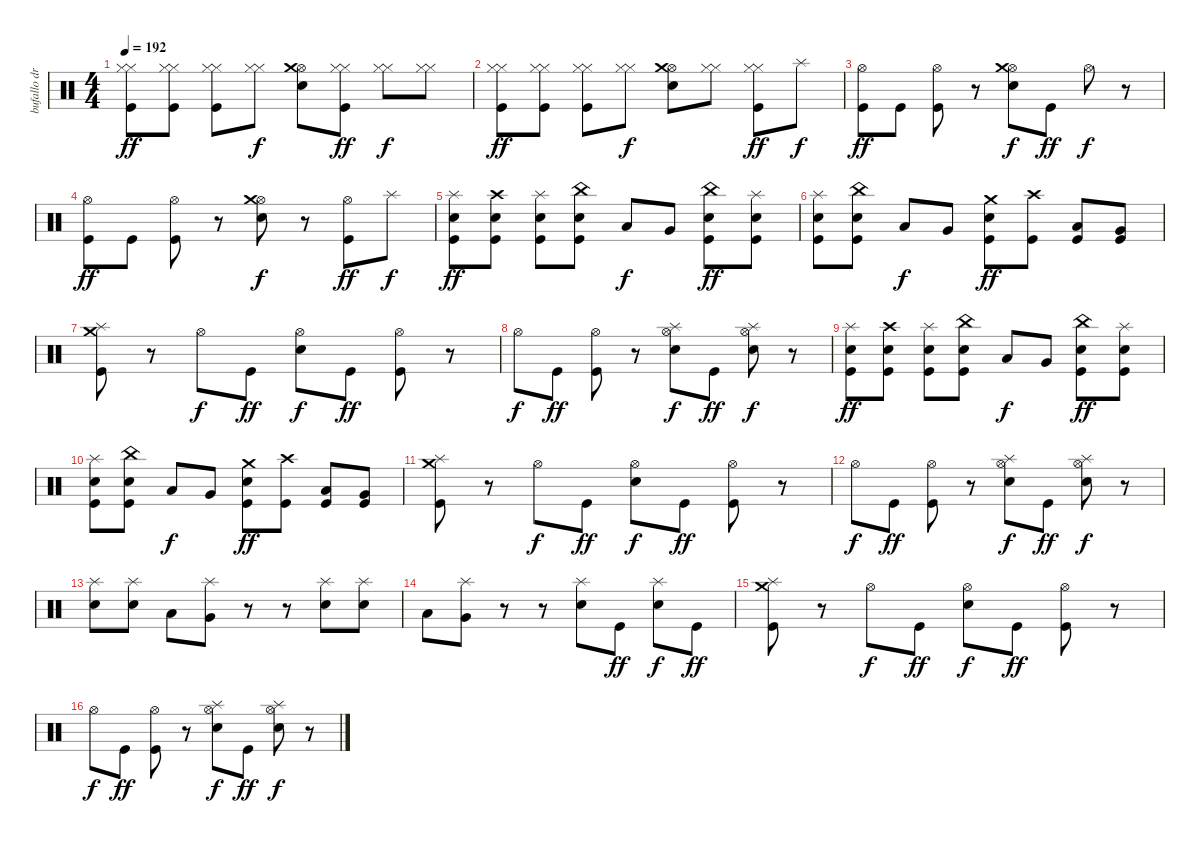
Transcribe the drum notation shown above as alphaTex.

\track ("bufallo drums" "bufallo dr") {instrument percussion}
\staff {score}
\articulation defaults
\ts (4 4)
\tempo 192
\clef neutral
\ks c
("Hi-Hat (closed)" "Hi-Hat (closed)" "Kick (hit)").8{dy ff} ("Hi-Hat (closed)" "Hi-Hat (closed)" "Kick (hit)").8 ("Hi-Hat (closed)" "Hi-Hat (closed)" "Kick (hit)").8 ("Hi-Hat (closed)" "Hi-Hat (closed)").8{dy f} ("Hi-Hat (open)" "Crash medium (hit)" "Electric Snare (hit)").8 ("Hi-Hat (closed)" "Hi-Hat (closed)" "Kick (hit)").8{dy ff} ("Hi-Hat (closed)" "Hi-Hat (closed)").8{dy f} ("Hi-Hat (closed)" "Hi-Hat (closed)").8 |
("Hi-Hat (closed)" "Hi-Hat (closed)" "Kick (hit)").8{dy ff} ("Hi-Hat (closed)" "Hi-Hat (closed)" "Kick (hit)").8 ("Hi-Hat (closed)" "Hi-Hat (closed)" "Kick (hit)").8 ("Hi-Hat (closed)" "Hi-Hat (closed)").8{dy f} ("Hi-Hat (open)" "Crash medium (hit)" "Electric Snare (hit)").8 ("Hi-Hat (closed)" "Hi-Hat (closed)").8 ("Hi-Hat (closed)" "Hi-Hat (closed)" "Kick (hit)").8{dy ff} "Splash (hit)".8{dy f} |
("Hi-Hat (open)" "Kick (hit)").8{dy ff} "Kick (hit)".8 ("Hi-Hat (open)" "Kick (hit)").8 r.8 ("Hi-Hat (open)" "Crash medium (hit)" "Electric Snare (hit)").8{dy f} "Kick (hit)".8{dy ff} "Hi-Hat (open)".8{dy f} r.8 |
("Hi-Hat (open)" "Kick (hit)").8{dy ff} "Kick (hit)".8 ("Hi-Hat (open)" "Kick (hit)").8 r.8 ("Hi-Hat (open)" "Crash medium (hit)" "Electric Snare (hit)").8{dy f} r.8 ("Hi-Hat (open)" "Kick (hit)").8{dy ff} "Splash (hit)".8{dy f} |
("Splash (hit)" "Electric Snare (hit)" "Kick (hit)").8{dy ff} ("Crash high (hit)" "Electric Snare (hit)" "Kick (hit)").8 ("Splash (hit)" "Electric Snare (hit)" "Kick (hit)").8 ("China (hit)" "Electric Snare (hit)" "Kick (hit)").8 "Low Tom (hit)".8{dy f} "Very Low Tom (hit)".8 ("China (hit)" "Electric Snare (hit)" "Kick (hit)").8{dy ff} ("Splash (hit)" "Electric Snare (hit)" "Kick (hit)").8 |
("Splash (hit)" "Electric Snare (hit)" "Kick (hit)").8 ("China (hit)" "Electric Snare (hit)" "Kick (hit)").8 "Low Tom (hit)".8{dy f} "Very Low Tom (hit)".8 ("Crash medium (hit)" "Electric Snare (hit)" "Kick (hit)").8{dy ff} ("Crash high (hit)" "Kick (hit)").8 ("Low Tom (hit)" "Kick (hit)").8 ("Very Low Tom (hit)" "Kick (hit)").8 |
("Crash medium (hit)" "Splash (hit)" "Kick (hit)").8 r.8 "Hi-Hat (open)".8{dy f} "Kick (hit)".8{dy ff} ("Hi-Hat (open)" "Electric Snare (hit)").8{dy f} "Kick (hit)".8{dy ff} ("Hi-Hat (open)" "Kick (hit)").8 r.8 |
"Hi-Hat (open)".8{dy f} "Kick (hit)".8{dy ff} ("Hi-Hat (open)" "Kick (hit)").8 r.8 ("Hi-Hat (open)" "Splash (hit)" "Electric Snare (hit)").8{dy f} "Kick (hit)".8{dy ff} ("Hi-Hat (open)" "Splash (hit)" "Electric Snare (hit)").8{dy f} r.8 |
("Splash (hit)" "Electric Snare (hit)" "Kick (hit)").8{dy ff} ("Crash high (hit)" "Electric Snare (hit)" "Kick (hit)").8 ("Splash (hit)" "Electric Snare (hit)" "Kick (hit)").8 ("China (hit)" "Electric Snare (hit)" "Kick (hit)").8 "Low Tom (hit)".8{dy f} "Very Low Tom (hit)".8 ("China (hit)" "Electric Snare (hit)" "Kick (hit)").8{dy ff} ("Splash (hit)" "Electric Snare (hit)" "Kick (hit)").8 |
("Splash (hit)" "Electric Snare (hit)" "Kick (hit)").8 ("China (hit)" "Electric Snare (hit)" "Kick (hit)").8 "Low Tom (hit)".8{dy f} "Very Low Tom (hit)".8 ("Crash medium (hit)" "Electric Snare (hit)" "Kick (hit)").8{dy ff} ("Crash high (hit)" "Kick (hit)").8 ("Low Tom (hit)" "Kick (hit)").8 ("Very Low Tom (hit)" "Kick (hit)").8 |
("Crash medium (hit)" "Splash (hit)" "Kick (hit)").8 r.8 "Hi-Hat (open)".8{dy f} "Kick (hit)".8{dy ff} ("Hi-Hat (open)" "Electric Snare (hit)").8{dy f} "Kick (hit)".8{dy ff} ("Hi-Hat (open)" "Kick (hit)").8 r.8 |
"Hi-Hat (open)".8{dy f} "Kick (hit)".8{dy ff} ("Hi-Hat (open)" "Kick (hit)").8 r.8 ("Hi-Hat (open)" "Splash (hit)" "Electric Snare (hit)").8{dy f} "Kick (hit)".8{dy ff} ("Hi-Hat (open)" "Splash (hit)" "Electric Snare (hit)").8{dy f} r.8 |
("Splash (hit)" "Electric Snare (hit)").8 ("Splash (hit)" "Electric Snare (hit)").8 "Low Tom (hit)".8 ("Splash (hit)" "Very Low Tom (hit)").8 r.8 r.8 ("Splash (hit)" "Electric Snare (hit)").8 ("Splash (hit)" "Electric Snare (hit)").8 |
"Low Tom (hit)".8 ("Splash (hit)" "Very Low Tom (hit)").8 r.8 r.8 ("Splash (hit)" "Electric Snare (hit)").8 "Kick (hit)".8{dy ff} ("Splash (hit)" "Electric Snare (hit)").8{dy f} "Kick (hit)".8{dy ff} |
("Crash medium (hit)" "Splash (hit)" "Kick (hit)").8 r.8 "Hi-Hat (open)".8{dy f} "Kick (hit)".8{dy ff} ("Hi-Hat (open)" "Electric Snare (hit)").8{dy f} "Kick (hit)".8{dy ff} ("Hi-Hat (open)" "Kick (hit)").8 r.8 |
"Hi-Hat (open)".8{dy f} "Kick (hit)".8{dy ff} ("Hi-Hat (open)" "Kick (hit)").8 r.8 ("Hi-Hat (open)" "Splash (hit)" "Electric Snare (hit)").8{dy f} "Kick (hit)".8{dy ff} ("Hi-Hat (open)" "Splash (hit)" "Electric Snare (hit)").8{dy f} r.8
